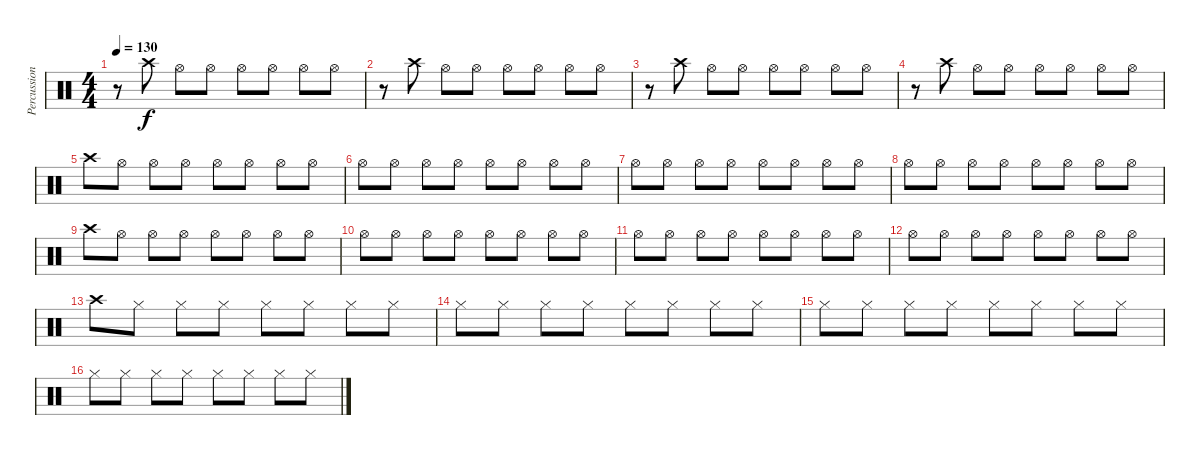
\track ("Percussion" "Percussion") {instrument percussion}
\staff {score}
\articulation defaults
\ts (4 4)
\tempo 130
\clef neutral
\ks c
r.8{dy f} "Crash high (hit)".8 "Hi-Hat (open)".8 "Hi-Hat (open)".8 "Hi-Hat (open)".8 "Hi-Hat (open)".8 "Hi-Hat (open)".8 "Hi-Hat (open)".8 |
r.8 "Crash high (hit)".8 "Hi-Hat (open)".8 "Hi-Hat (open)".8 "Hi-Hat (open)".8 "Hi-Hat (open)".8 "Hi-Hat (open)".8 "Hi-Hat (open)".8 |
r.8 "Crash high (hit)".8 "Hi-Hat (open)".8 "Hi-Hat (open)".8 "Hi-Hat (open)".8 "Hi-Hat (open)".8 "Hi-Hat (open)".8 "Hi-Hat (open)".8 |
r.8 "Crash high (hit)".8 "Hi-Hat (open)".8 "Hi-Hat (open)".8 "Hi-Hat (open)".8 "Hi-Hat (open)".8 "Hi-Hat (open)".8 "Hi-Hat (open)".8 |
"Crash high (hit)".8 "Hi-Hat (open)".8 "Hi-Hat (open)".8 "Hi-Hat (open)".8 "Hi-Hat (open)".8 "Hi-Hat (open)".8 "Hi-Hat (open)".8 "Hi-Hat (open)".8 |
"Hi-Hat (open)".8 "Hi-Hat (open)".8 "Hi-Hat (open)".8 "Hi-Hat (open)".8 "Hi-Hat (open)".8 "Hi-Hat (open)".8 "Hi-Hat (open)".8 "Hi-Hat (open)".8 |
"Hi-Hat (open)".8 "Hi-Hat (open)".8 "Hi-Hat (open)".8 "Hi-Hat (open)".8 "Hi-Hat (open)".8 "Hi-Hat (open)".8 "Hi-Hat (open)".8 "Hi-Hat (open)".8 |
"Hi-Hat (open)".8 "Hi-Hat (open)".8 "Hi-Hat (open)".8 "Hi-Hat (open)".8 "Hi-Hat (open)".8 "Hi-Hat (open)".8 "Hi-Hat (open)".8 "Hi-Hat (open)".8 |
"Crash high (hit)".8 "Hi-Hat (open)".8 "Hi-Hat (open)".8 "Hi-Hat (open)".8 "Hi-Hat (open)".8 "Hi-Hat (open)".8 "Hi-Hat (open)".8 "Hi-Hat (open)".8 |
"Hi-Hat (open)".8 "Hi-Hat (open)".8 "Hi-Hat (open)".8 "Hi-Hat (open)".8 "Hi-Hat (open)".8 "Hi-Hat (open)".8 "Hi-Hat (open)".8 "Hi-Hat (open)".8 |
"Hi-Hat (open)".8 "Hi-Hat (open)".8 "Hi-Hat (open)".8 "Hi-Hat (open)".8 "Hi-Hat (open)".8 "Hi-Hat (open)".8 "Hi-Hat (open)".8 "Hi-Hat (open)".8 |
"Hi-Hat (open)".8 "Hi-Hat (open)".8 "Hi-Hat (open)".8 "Hi-Hat (open)".8 "Hi-Hat (open)".8 "Hi-Hat (open)".8 "Hi-Hat (open)".8 "Hi-Hat (open)".8 |
"Crash high (hit)".8 "Hi-Hat (closed)".8 "Hi-Hat (closed)".8 "Hi-Hat (closed)".8 "Hi-Hat (closed)".8 "Hi-Hat (closed)".8 "Hi-Hat (closed)".8 "Hi-Hat (closed)".8 |
"Hi-Hat (closed)".8 "Hi-Hat (closed)".8 "Hi-Hat (closed)".8 "Hi-Hat (closed)".8 "Hi-Hat (closed)".8 "Hi-Hat (closed)".8 "Hi-Hat (closed)".8 "Hi-Hat (closed)".8 |
"Hi-Hat (closed)".8 "Hi-Hat (closed)".8 "Hi-Hat (closed)".8 "Hi-Hat (closed)".8 "Hi-Hat (closed)".8 "Hi-Hat (closed)".8 "Hi-Hat (closed)".8 "Hi-Hat (closed)".8 |
"Hi-Hat (closed)".8 "Hi-Hat (closed)".8 "Hi-Hat (closed)".8 "Hi-Hat (closed)".8 "Hi-Hat (closed)".8 "Hi-Hat (closed)".8 "Hi-Hat (closed)".8 "Hi-Hat (closed)".8
